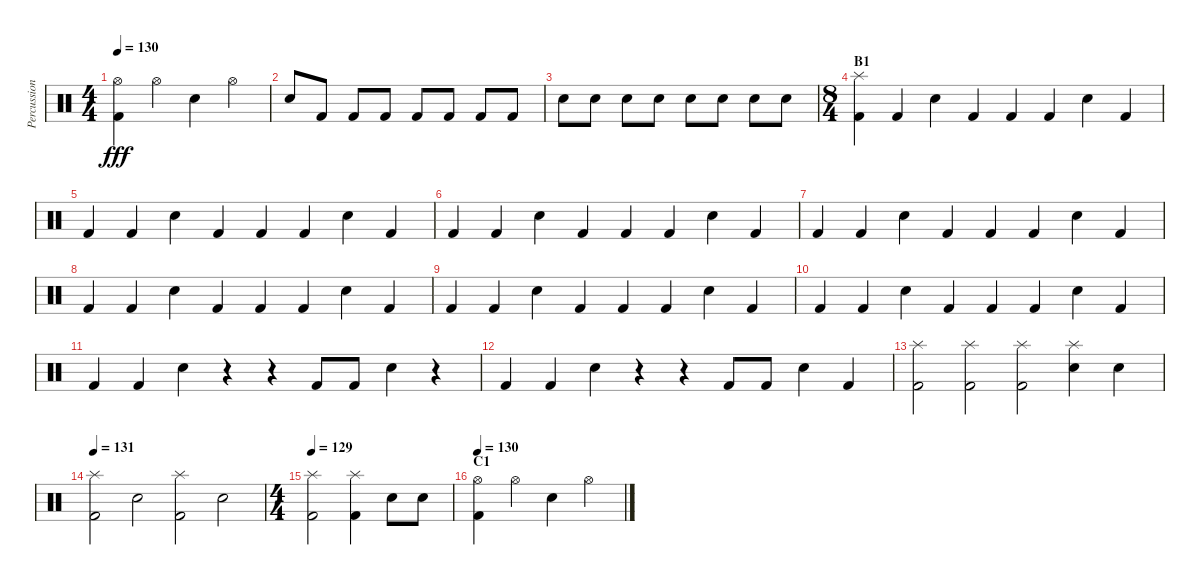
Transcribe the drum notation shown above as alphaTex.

\track ("Percussion" "Percussion") {instrument percussion}
\staff {score}
\articulation defaults
\ts (4 4)
\tempo 130
\clef neutral
\ks c
("Kick (hit) 2" "Hi-Hat (open)").4{dy fff} "Hi-Hat (open)".4 "Electric Snare (hit)".4 "Hi-Hat (open)".4 |
"Electric Snare (hit)".8 "Kick (hit) 2".8 "Kick (hit) 2".8 "Kick (hit) 2".8 "Kick (hit) 2".8 "Kick (hit) 2".8 "Kick (hit) 2".8 "Kick (hit) 2".8 |
"Electric Snare (hit)".8 "Electric Snare (hit)".8 "Electric Snare (hit)".8 "Electric Snare (hit)".8 "Electric Snare (hit)".8 "Electric Snare (hit)".8 "Electric Snare (hit)".8 "Electric Snare (hit)".8 |
\ts (8 4)
\section ("" "B1")
("Kick (hit) 2" "Splash (hit)").4 "Kick (hit) 2".4 "Electric Snare (hit)".4 "Kick (hit) 2".4 "Kick (hit) 2".4 "Kick (hit) 2".4 "Electric Snare (hit)".4 "Kick (hit) 2".4 |
"Kick (hit) 2".4 "Kick (hit) 2".4 "Electric Snare (hit)".4 "Kick (hit) 2".4 "Kick (hit) 2".4 "Kick (hit) 2".4 "Electric Snare (hit)".4 "Kick (hit) 2".4 |
"Kick (hit) 2".4 "Kick (hit) 2".4 "Electric Snare (hit)".4 "Kick (hit) 2".4 "Kick (hit) 2".4 "Kick (hit) 2".4 "Electric Snare (hit)".4 "Kick (hit) 2".4 |
"Kick (hit) 2".4 "Kick (hit) 2".4 "Electric Snare (hit)".4 "Kick (hit) 2".4 "Kick (hit) 2".4 "Kick (hit) 2".4 "Electric Snare (hit)".4 "Kick (hit) 2".4 |
"Kick (hit) 2".4 "Kick (hit) 2".4 "Electric Snare (hit)".4 "Kick (hit) 2".4 "Kick (hit) 2".4 "Kick (hit) 2".4 "Electric Snare (hit)".4 "Kick (hit) 2".4 |
"Kick (hit) 2".4 "Kick (hit) 2".4 "Electric Snare (hit)".4 "Kick (hit) 2".4 "Kick (hit) 2".4 "Kick (hit) 2".4 "Electric Snare (hit)".4 "Kick (hit) 2".4 |
"Kick (hit) 2".4 "Kick (hit) 2".4 "Electric Snare (hit)".4 "Kick (hit) 2".4 "Kick (hit) 2".4 "Kick (hit) 2".4 "Electric Snare (hit)".4 "Kick (hit) 2".4 |
"Kick (hit) 2".4 "Kick (hit) 2".4 "Electric Snare (hit)".4 r.4 r.4 "Kick (hit) 2".8 "Kick (hit) 2".8 "Electric Snare (hit)".4 r.4 |
"Kick (hit) 2".4 "Kick (hit) 2".4 "Electric Snare (hit)".4 r.4 r.4 "Kick (hit) 2".8 "Kick (hit) 2".8 "Electric Snare (hit)".4 "Kick (hit) 2".4 |
("Kick (hit) 2" "Splash (hit)").2 ("Kick (hit) 2" "Splash (hit)").2 ("Kick (hit) 2" "Splash (hit)").2 ("Electric Snare (hit)" "Splash (hit)").4 "Electric Snare (hit)".4 |
\tempo 131
("Kick (hit) 2" "Splash (hit)").2 "Electric Snare (hit)".2 ("Kick (hit) 2" "Splash (hit)").2 "Electric Snare (hit)".2 |
\ts (4 4)
\tempo 129
("Kick (hit) 2" "Splash (hit)").2 ("Kick (hit) 2" "Splash (hit)").4 "Electric Snare (hit)".8 "Electric Snare (hit)".8 |
\section ("" "C1")
\tempo 130
("Kick (hit) 2" "Hi-Hat (open)").4 "Hi-Hat (open)".4 "Electric Snare (hit)".4 "Hi-Hat (open)".4
